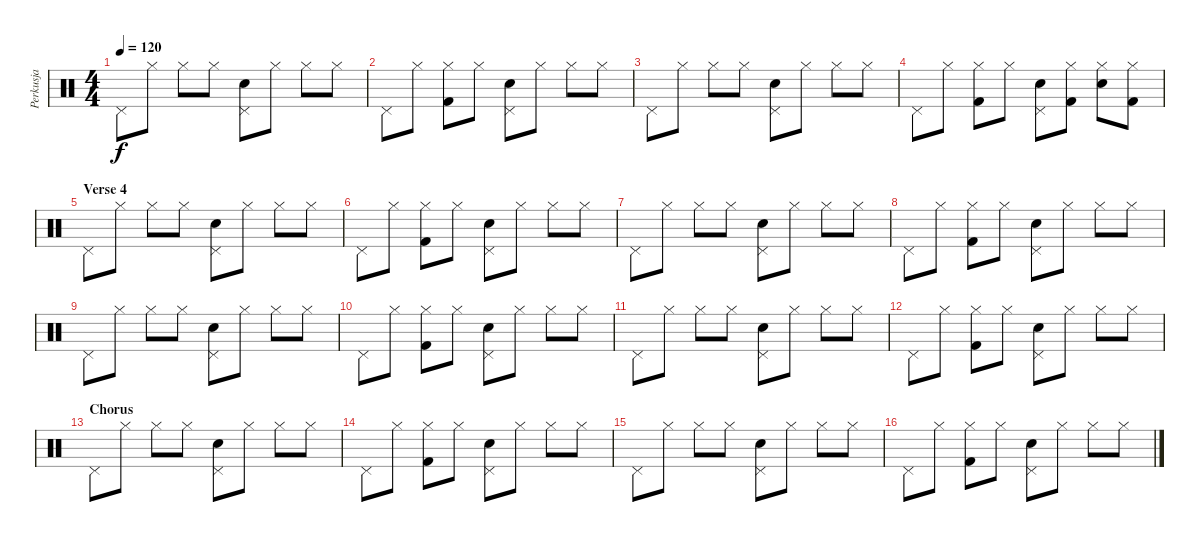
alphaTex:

\track ("Perkusja" "Perkusja") {instrument percussion}
\staff {score}
\articulation defaults
\ts (4 4)
\tempo 120
\clef neutral
\ks c "Pedal Hi-Hat (hit)".8{dy f} "Hi-Hat (closed)".8 "Hi-Hat (closed)".8 "Hi-Hat (closed)".8
("Pedal Hi-Hat (hit)" "Snare (hit) 2").8 "Hi-Hat (closed)".8 "Hi-Hat (closed)".8 "Hi-Hat (closed)".8 |
"Pedal Hi-Hat (hit)".8 "Hi-Hat (closed)".8 ("Hi-Hat (closed)" "Kick (hit) 2").8 "Hi-Hat (closed)".8 ("Pedal Hi-Hat (hit)" "Snare (hit) 2").8 "Hi-Hat (closed)".8 "Hi-Hat (closed)".8 "Hi-Hat (closed)".8 |
"Pedal Hi-Hat (hit)".8 "Hi-Hat (closed)".8 "Hi-Hat (closed)".8 "Hi-Hat (closed)".8 ("Pedal Hi-Hat (hit)" "Snare (hit) 2").8 "Hi-Hat (closed)".8 "Hi-Hat (closed)".8 "Hi-Hat (closed)".8 |
"Pedal Hi-Hat (hit)".8 "Hi-Hat (closed)".8 ("Hi-Hat (closed)" "Kick (hit) 2").8 "Hi-Hat (closed)".8 ("Pedal Hi-Hat (hit)" "Snare (hit) 2").8 ("Hi-Hat (closed)" "Kick (hit) 2").8 ("Hi-Hat (closed)" "Snare (hit) 2").8 ("Hi-Hat (closed)" "Kick (hit) 2").8 |
\section ("" "Verse 4")
"Pedal Hi-Hat (hit)".8 "Hi-Hat (closed)".8 "Hi-Hat (closed)".8 "Hi-Hat (closed)".8 ("Pedal Hi-Hat (hit)" "Snare (hit) 2").8 "Hi-Hat (closed)".8 "Hi-Hat (closed)".8 "Hi-Hat (closed)".8 |
"Pedal Hi-Hat (hit)".8 "Hi-Hat (closed)".8 ("Hi-Hat (closed)" "Kick (hit) 2").8 "Hi-Hat (closed)".8 ("Pedal Hi-Hat (hit)" "Snare (hit) 2").8 "Hi-Hat (closed)".8 "Hi-Hat (closed)".8 "Hi-Hat (closed)".8 |
"Pedal Hi-Hat (hit)".8 "Hi-Hat (closed)".8 "Hi-Hat (closed)".8 "Hi-Hat (closed)".8 ("Pedal Hi-Hat (hit)" "Snare (hit) 2").8 "Hi-Hat (closed)".8 "Hi-Hat (closed)".8 "Hi-Hat (closed)".8 |
"Pedal Hi-Hat (hit)".8 "Hi-Hat (closed)".8 ("Hi-Hat (closed)" "Kick (hit) 2").8 "Hi-Hat (closed)".8 ("Pedal Hi-Hat (hit)" "Snare (hit) 2").8 "Hi-Hat (closed)".8 "Hi-Hat (closed)".8 "Hi-Hat (closed)".8 |
"Pedal Hi-Hat (hit)".8 "Hi-Hat (closed)".8 "Hi-Hat (closed)".8 "Hi-Hat (closed)".8 ("Pedal Hi-Hat (hit)" "Snare (hit) 2").8 "Hi-Hat (closed)".8 "Hi-Hat (closed)".8 "Hi-Hat (closed)".8 |
"Pedal Hi-Hat (hit)".8 "Hi-Hat (closed)".8 ("Hi-Hat (closed)" "Kick (hit) 2").8 "Hi-Hat (closed)".8 ("Pedal Hi-Hat (hit)" "Snare (hit) 2").8 "Hi-Hat (closed)".8 "Hi-Hat (closed)".8 "Hi-Hat (closed)".8 |
"Pedal Hi-Hat (hit)".8 "Hi-Hat (closed)".8 "Hi-Hat (closed)".8 "Hi-Hat (closed)".8 ("Pedal Hi-Hat (hit)" "Snare (hit) 2").8 "Hi-Hat (closed)".8 "Hi-Hat (closed)".8 "Hi-Hat (closed)".8 |
"Pedal Hi-Hat (hit)".8 "Hi-Hat (closed)".8 ("Hi-Hat (closed)" "Kick (hit) 2").8 "Hi-Hat (closed)".8 ("Pedal Hi-Hat (hit)" "Snare (hit) 2").8 "Hi-Hat (closed)".8 "Hi-Hat (closed)".8 "Hi-Hat (closed)".8 |
\section ("" "Chorus")
"Pedal Hi-Hat (hit)".8 "Hi-Hat (closed)".8 "Hi-Hat (closed)".8 "Hi-Hat (closed)".8 ("Pedal Hi-Hat (hit)" "Snare (hit) 2").8 "Hi-Hat (closed)".8 "Hi-Hat (closed)".8 "Hi-Hat (closed)".8 |
"Pedal Hi-Hat (hit)".8 "Hi-Hat (closed)".8 ("Hi-Hat (closed)" "Kick (hit) 2").8 "Hi-Hat (closed)".8 ("Pedal Hi-Hat (hit)" "Snare (hit) 2").8 "Hi-Hat (closed)".8 "Hi-Hat (closed)".8 "Hi-Hat (closed)".8 |
"Pedal Hi-Hat (hit)".8 "Hi-Hat (closed)".8 "Hi-Hat (closed)".8 "Hi-Hat (closed)".8 ("Pedal Hi-Hat (hit)" "Snare (hit) 2").8 "Hi-Hat (closed)".8 "Hi-Hat (closed)".8 "Hi-Hat (closed)".8 |
"Pedal Hi-Hat (hit)".8 "Hi-Hat (closed)".8 ("Hi-Hat (closed)" "Kick (hit) 2").8 "Hi-Hat (closed)".8 ("Pedal Hi-Hat (hit)" "Snare (hit) 2").8 "Hi-Hat (closed)".8 "Hi-Hat (closed)".8 "Hi-Hat (closed)".8
